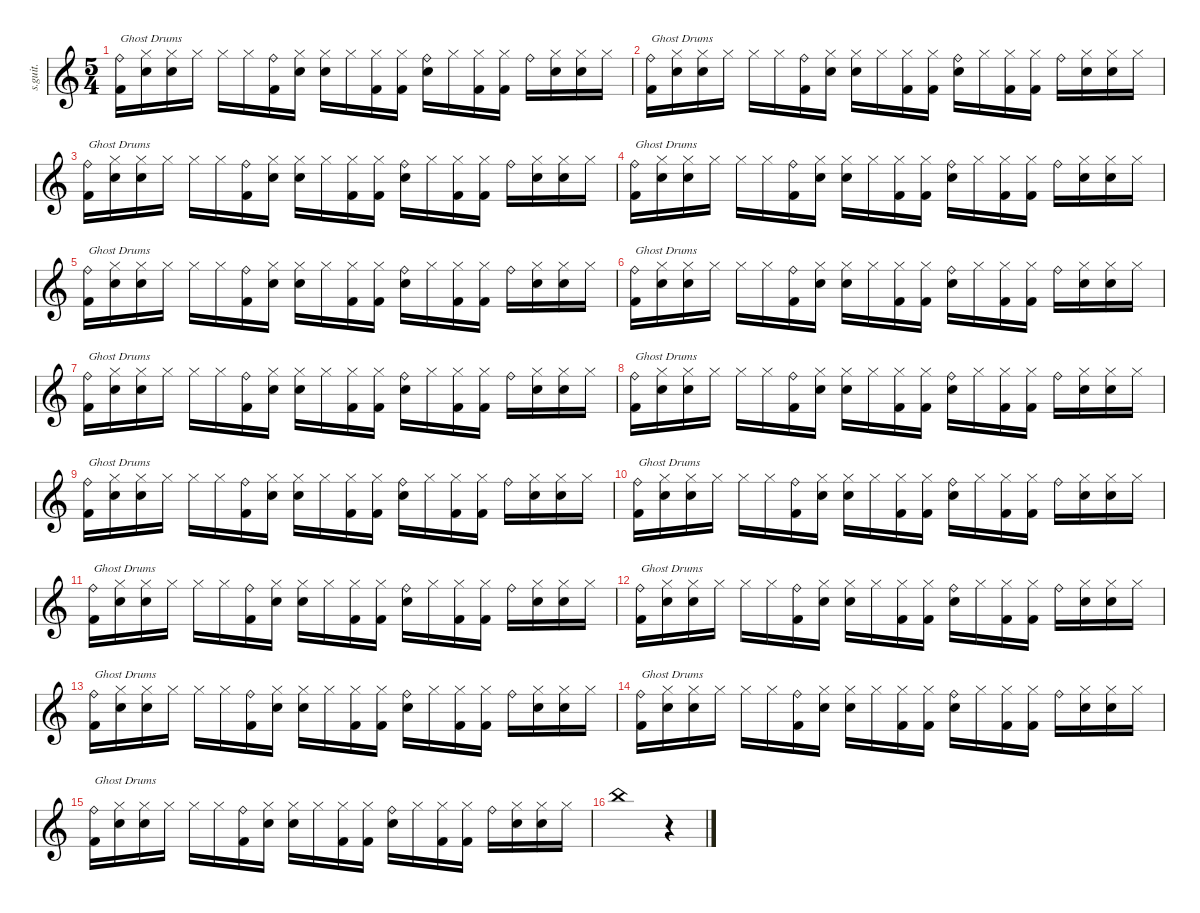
\defaultSystemsLayout 4
\hideDynamics
\bracketExtendMode nobrackets
\track ("Pete Riley" "s.guit.") {instrument percussion}
\staff {score}
\articulation defaults
\ts (5 4)
\tempo (152 hide)
\clef g2
\ks c
("Ride (bell)" "Kick (hit) 2").16{txt "Ghost Drums" dy ff} ("Hi-Hat (closed)" "Snare (hit) 2").16{dy p} ("Hi-Hat (closed)" "Snare (hit) 2").16 "Hi-Hat (closed)".16 "Hi-Hat (closed)".16 "Hi-Hat (closed)".16 ("Ride (bell)" "Kick (hit) 2").16{dy fff} ("Hi-Hat (closed)" "Snare (hit) 2").16{dy p} ("Hi-Hat (closed)" "Snare (hit) 2").16 "Hi-Hat (closed)".16 ("Hi-Hat (closed)" "Kick (hit) 2").16 ("Hi-Hat (closed)" "Kick (hit) 2").16 ("Ride (bell)" "Snare (hit) 2").16{dy ff} "Hi-Hat (closed)".16{dy p} ("Hi-Hat (closed)" "Kick (hit) 2").16 ("Hi-Hat (closed)" "Kick (hit) 2").16 "Ride (bell)".16{dy fff} ("Hi-Hat (closed)" "Snare (hit) 2").16{dy pp} ("Hi-Hat (closed)" "Snare (hit) 2").16 "Hi-Hat (closed)".16 |
("Ride (bell)" "Kick (hit) 2").16{txt "Ghost Drums" dy ff} ("Hi-Hat (closed)" "Snare (hit) 2").16{dy p} ("Hi-Hat (closed)" "Snare (hit) 2").16 "Hi-Hat (closed)".16 "Hi-Hat (closed)".16 "Hi-Hat (closed)".16 ("Ride (bell)" "Kick (hit) 2").16{dy fff} ("Hi-Hat (closed)" "Snare (hit) 2").16{dy p} ("Hi-Hat (closed)" "Snare (hit) 2").16 "Hi-Hat (closed)".16 ("Hi-Hat (closed)" "Kick (hit) 2").16 ("Hi-Hat (closed)" "Kick (hit) 2").16 ("Ride (bell)" "Snare (hit) 2").16{dy ff} "Hi-Hat (closed)".16{dy p} ("Hi-Hat (closed)" "Kick (hit) 2").16 ("Hi-Hat (closed)" "Kick (hit) 2").16 "Ride (bell)".16{dy f} ("Hi-Hat (closed)" "Snare (hit) 2").16{dy pp} ("Hi-Hat (closed)" "Snare (hit) 2").16 "Hi-Hat (closed)".16 |
("Ride (bell)" "Kick (hit) 2").16{txt "Ghost Drums" dy ff} ("Hi-Hat (closed)" "Snare (hit) 2").16{dy p} ("Hi-Hat (closed)" "Snare (hit) 2").16 "Hi-Hat (closed)".16 "Hi-Hat (closed)".16 "Hi-Hat (closed)".16 ("Ride (bell)" "Kick (hit) 2").16{dy fff} ("Hi-Hat (closed)" "Snare (hit) 2").16{dy p} ("Hi-Hat (closed)" "Snare (hit) 2").16 "Hi-Hat (closed)".16 ("Hi-Hat (closed)" "Kick (hit) 2").16 ("Hi-Hat (closed)" "Kick (hit) 2").16 ("Ride (bell)" "Snare (hit) 2").16{dy ff} "Hi-Hat (closed)".16{dy p} ("Hi-Hat (closed)" "Kick (hit) 2").16 ("Hi-Hat (closed)" "Kick (hit) 2").16 "Ride (bell)".16{dy fff} ("Hi-Hat (closed)" "Snare (hit) 2").16{dy pp} ("Hi-Hat (closed)" "Snare (hit) 2").16 "Hi-Hat (closed)".16 |
("Ride (bell)" "Kick (hit) 2").16{txt "Ghost Drums" dy ff} ("Hi-Hat (closed)" "Snare (hit) 2").16{dy p} ("Hi-Hat (closed)" "Snare (hit) 2").16 "Hi-Hat (closed)".16 "Hi-Hat (closed)".16 "Hi-Hat (closed)".16 ("Ride (bell)" "Kick (hit) 2").16{dy fff} ("Hi-Hat (closed)" "Snare (hit) 2").16{dy p} ("Hi-Hat (closed)" "Snare (hit) 2").16 "Hi-Hat (closed)".16 ("Hi-Hat (closed)" "Kick (hit) 2").16 ("Hi-Hat (closed)" "Kick (hit) 2").16 ("Ride (bell)" "Snare (hit) 2").16{dy ff} "Hi-Hat (closed)".16{dy p} ("Hi-Hat (closed)" "Kick (hit) 2").16 ("Hi-Hat (closed)" "Kick (hit) 2").16 "Ride (bell)".16{dy f} ("Hi-Hat (closed)" "Snare (hit) 2").16{dy pp} ("Hi-Hat (closed)" "Snare (hit) 2").16 "Hi-Hat (closed)".16 |
("Ride (bell)" "Kick (hit) 2").16{txt "Ghost Drums" dy ff} ("Hi-Hat (closed)" "Snare (hit) 2").16{dy p} ("Hi-Hat (closed)" "Snare (hit) 2").16 "Hi-Hat (closed)".16 "Hi-Hat (closed)".16 "Hi-Hat (closed)".16 ("Ride (bell)" "Kick (hit) 2").16{dy fff} ("Hi-Hat (closed)" "Snare (hit) 2").16{dy p} ("Hi-Hat (closed)" "Snare (hit) 2").16 "Hi-Hat (closed)".16 ("Hi-Hat (closed)" "Kick (hit) 2").16 ("Hi-Hat (closed)" "Kick (hit) 2").16 ("Ride (bell)" "Snare (hit) 2").16{dy ff} "Hi-Hat (closed)".16{dy p} ("Hi-Hat (closed)" "Kick (hit) 2").16 ("Hi-Hat (closed)" "Kick (hit) 2").16 "Ride (bell)".16{dy fff} ("Hi-Hat (closed)" "Snare (hit) 2").16{dy pp} ("Hi-Hat (closed)" "Snare (hit) 2").16 "Hi-Hat (closed)".16 |
("Ride (bell)" "Kick (hit) 2").16{txt "Ghost Drums" dy ff} ("Hi-Hat (closed)" "Snare (hit) 2").16{dy p} ("Hi-Hat (closed)" "Snare (hit) 2").16 "Hi-Hat (closed)".16 "Hi-Hat (closed)".16 "Hi-Hat (closed)".16 ("Ride (bell)" "Kick (hit) 2").16{dy fff} ("Hi-Hat (closed)" "Snare (hit) 2").16{dy p} ("Hi-Hat (closed)" "Snare (hit) 2").16 "Hi-Hat (closed)".16 ("Hi-Hat (closed)" "Kick (hit) 2").16 ("Hi-Hat (closed)" "Kick (hit) 2").16 ("Ride (bell)" "Snare (hit) 2").16{dy ff} "Hi-Hat (closed)".16{dy p} ("Hi-Hat (closed)" "Kick (hit) 2").16 ("Hi-Hat (closed)" "Kick (hit) 2").16 "Ride (bell)".16{dy f} ("Hi-Hat (closed)" "Snare (hit) 2").16{dy pp} ("Hi-Hat (closed)" "Snare (hit) 2").16 "Hi-Hat (closed)".16 |
("Ride (bell)" "Kick (hit) 2").16{txt "Ghost Drums" dy ff} ("Hi-Hat (closed)" "Snare (hit) 2").16{dy p} ("Hi-Hat (closed)" "Snare (hit) 2").16 "Hi-Hat (closed)".16 "Hi-Hat (closed)".16 "Hi-Hat (closed)".16 ("Ride (bell)" "Kick (hit) 2").16{dy fff} ("Hi-Hat (closed)" "Snare (hit) 2").16{dy p} ("Hi-Hat (closed)" "Snare (hit) 2").16 "Hi-Hat (closed)".16 ("Hi-Hat (closed)" "Kick (hit) 2").16 ("Hi-Hat (closed)" "Kick (hit) 2").16 ("Ride (bell)" "Snare (hit) 2").16{dy ff} "Hi-Hat (closed)".16{dy p} ("Hi-Hat (closed)" "Kick (hit) 2").16 ("Hi-Hat (closed)" "Kick (hit) 2").16 "Ride (bell)".16{dy fff} ("Hi-Hat (closed)" "Snare (hit) 2").16{dy pp} ("Hi-Hat (closed)" "Snare (hit) 2").16 "Hi-Hat (closed)".16 |
("Ride (bell)" "Kick (hit) 2").16{txt "Ghost Drums" dy ff} ("Hi-Hat (closed)" "Snare (hit) 2").16{dy p} ("Hi-Hat (closed)" "Snare (hit) 2").16 "Hi-Hat (closed)".16 "Hi-Hat (closed)".16 "Hi-Hat (closed)".16 ("Ride (bell)" "Kick (hit) 2").16{dy fff} ("Hi-Hat (closed)" "Snare (hit) 2").16{dy p} ("Hi-Hat (closed)" "Snare (hit) 2").16 "Hi-Hat (closed)".16 ("Hi-Hat (closed)" "Kick (hit) 2").16 ("Hi-Hat (closed)" "Kick (hit) 2").16 ("Ride (bell)" "Snare (hit) 2").16{dy ff} "Hi-Hat (closed)".16{dy p} ("Hi-Hat (closed)" "Kick (hit) 2").16 ("Hi-Hat (closed)" "Kick (hit) 2").16 "Ride (bell)".16{dy f} ("Hi-Hat (closed)" "Snare (hit) 2").16{dy pp} ("Hi-Hat (closed)" "Snare (hit) 2").16 "Hi-Hat (closed)".16 |
("Ride (bell)" "Kick (hit) 2").16{txt "Ghost Drums" dy ff} ("Hi-Hat (closed)" "Snare (hit) 2").16{dy p} ("Hi-Hat (closed)" "Snare (hit) 2").16 "Hi-Hat (closed)".16 "Hi-Hat (closed)".16 "Hi-Hat (closed)".16 ("Ride (bell)" "Kick (hit) 2").16{dy fff} ("Hi-Hat (closed)" "Snare (hit) 2").16{dy p} ("Hi-Hat (closed)" "Snare (hit) 2").16 "Hi-Hat (closed)".16 ("Hi-Hat (closed)" "Kick (hit) 2").16 ("Hi-Hat (closed)" "Kick (hit) 2").16 ("Ride (bell)" "Snare (hit) 2").16{dy ff} "Hi-Hat (closed)".16{dy p} ("Hi-Hat (closed)" "Kick (hit) 2").16 ("Hi-Hat (closed)" "Kick (hit) 2").16 "Ride (bell)".16{dy fff} ("Hi-Hat (closed)" "Snare (hit) 2").16{dy pp} ("Hi-Hat (closed)" "Snare (hit) 2").16 "Hi-Hat (closed)".16 |
("Ride (bell)" "Kick (hit) 2").16{txt "Ghost Drums" dy ff} ("Hi-Hat (closed)" "Snare (hit) 2").16{dy p} ("Hi-Hat (closed)" "Snare (hit) 2").16 "Hi-Hat (closed)".16 "Hi-Hat (closed)".16 "Hi-Hat (closed)".16 ("Ride (bell)" "Kick (hit) 2").16{dy fff} ("Hi-Hat (closed)" "Snare (hit) 2").16{dy p} ("Hi-Hat (closed)" "Snare (hit) 2").16 "Hi-Hat (closed)".16 ("Hi-Hat (closed)" "Kick (hit) 2").16 ("Hi-Hat (closed)" "Kick (hit) 2").16 ("Ride (bell)" "Snare (hit) 2").16{dy ff} "Hi-Hat (closed)".16{dy p} ("Hi-Hat (closed)" "Kick (hit) 2").16 ("Hi-Hat (closed)" "Kick (hit) 2").16 "Ride (bell)".16{dy f} ("Hi-Hat (closed)" "Snare (hit) 2").16{dy pp} ("Hi-Hat (closed)" "Snare (hit) 2").16 "Hi-Hat (closed)".16 |
("Ride (bell)" "Kick (hit) 2").16{txt "Ghost Drums" dy ff} ("Hi-Hat (closed)" "Snare (hit) 2").16{dy p} ("Hi-Hat (closed)" "Snare (hit) 2").16 "Hi-Hat (closed)".16 "Hi-Hat (closed)".16 "Hi-Hat (closed)".16 ("Ride (bell)" "Kick (hit) 2").16{dy fff} ("Hi-Hat (closed)" "Snare (hit) 2").16{dy p} ("Hi-Hat (closed)" "Snare (hit) 2").16 "Hi-Hat (closed)".16 ("Hi-Hat (closed)" "Kick (hit) 2").16 ("Hi-Hat (closed)" "Kick (hit) 2").16 ("Ride (bell)" "Snare (hit) 2").16{dy ff} "Hi-Hat (closed)".16{dy p} ("Hi-Hat (closed)" "Kick (hit) 2").16 ("Hi-Hat (closed)" "Kick (hit) 2").16 "Ride (bell)".16{dy fff} ("Hi-Hat (closed)" "Snare (hit) 2").16{dy pp} ("Hi-Hat (closed)" "Snare (hit) 2").16 "Hi-Hat (closed)".16 |
("Ride (bell)" "Kick (hit) 2").16{txt "Ghost Drums" dy ff} ("Hi-Hat (closed)" "Snare (hit) 2").16{dy p} ("Hi-Hat (closed)" "Snare (hit) 2").16 "Hi-Hat (closed)".16 "Hi-Hat (closed)".16 "Hi-Hat (closed)".16 ("Ride (bell)" "Kick (hit) 2").16{dy fff} ("Hi-Hat (closed)" "Snare (hit) 2").16{dy p} ("Hi-Hat (closed)" "Snare (hit) 2").16 "Hi-Hat (closed)".16 ("Hi-Hat (closed)" "Kick (hit) 2").16 ("Hi-Hat (closed)" "Kick (hit) 2").16 ("Ride (bell)" "Snare (hit) 2").16{dy ff} "Hi-Hat (closed)".16{dy p} ("Hi-Hat (closed)" "Kick (hit) 2").16 ("Hi-Hat (closed)" "Kick (hit) 2").16 "Ride (bell)".16{dy f} ("Hi-Hat (closed)" "Snare (hit) 2").16{dy pp} ("Hi-Hat (closed)" "Snare (hit) 2").16 "Hi-Hat (closed)".16 |
("Ride (bell)" "Kick (hit) 2").16{txt "Ghost Drums" dy ff} ("Hi-Hat (closed)" "Snare (hit) 2").16{dy p} ("Hi-Hat (closed)" "Snare (hit) 2").16 "Hi-Hat (closed)".16 "Hi-Hat (closed)".16 "Hi-Hat (closed)".16 ("Ride (bell)" "Kick (hit) 2").16{dy fff} ("Hi-Hat (closed)" "Snare (hit) 2").16{dy p} ("Hi-Hat (closed)" "Snare (hit) 2").16 "Hi-Hat (closed)".16 ("Hi-Hat (closed)" "Kick (hit) 2").16 ("Hi-Hat (closed)" "Kick (hit) 2").16 ("Ride (bell)" "Snare (hit) 2").16{dy ff} "Hi-Hat (closed)".16{dy p} ("Hi-Hat (closed)" "Kick (hit) 2").16 ("Hi-Hat (closed)" "Kick (hit) 2").16 "Ride (bell)".16{dy fff} ("Hi-Hat (closed)" "Snare (hit) 2").16{dy pp} ("Hi-Hat (closed)" "Snare (hit) 2").16 "Hi-Hat (closed)".16 |
("Ride (bell)" "Kick (hit) 2").16{txt "Ghost Drums" dy ff} ("Hi-Hat (closed)" "Snare (hit) 2").16{dy p} ("Hi-Hat (closed)" "Snare (hit) 2").16 "Hi-Hat (closed)".16 "Hi-Hat (closed)".16 "Hi-Hat (closed)".16 ("Ride (bell)" "Kick (hit) 2").16{dy fff} ("Hi-Hat (closed)" "Snare (hit) 2").16{dy p} ("Hi-Hat (closed)" "Snare (hit) 2").16 "Hi-Hat (closed)".16 ("Hi-Hat (closed)" "Kick (hit) 2").16 ("Hi-Hat (closed)" "Kick (hit) 2").16 ("Ride (bell)" "Snare (hit) 2").16{dy ff} "Hi-Hat (closed)".16{dy p} ("Hi-Hat (closed)" "Kick (hit) 2").16 ("Hi-Hat (closed)" "Kick (hit) 2").16 "Ride (bell)".16{dy f} ("Hi-Hat (closed)" "Snare (hit) 2").16{dy pp} ("Hi-Hat (closed)" "Snare (hit) 2").16 "Hi-Hat (closed)".16 |
("Ride (bell)" "Kick (hit) 2").16{txt "Ghost Drums" dy ff} ("Hi-Hat (closed)" "Snare (hit) 2").16{dy p} ("Hi-Hat (closed)" "Snare (hit) 2").16 "Hi-Hat (closed)".16 "Hi-Hat (closed)".16 "Hi-Hat (closed)".16 ("Ride (bell)" "Kick (hit) 2").16{dy fff} ("Hi-Hat (closed)" "Snare (hit) 2").16{dy p} ("Hi-Hat (closed)" "Snare (hit) 2").16 "Hi-Hat (closed)".16 ("Hi-Hat (closed)" "Kick (hit) 2").16 ("Hi-Hat (closed)" "Kick (hit) 2").16 ("Ride (bell)" "Snare (hit) 2").16{dy ff} "Hi-Hat (closed)".16{dy p} ("Hi-Hat (closed)" "Kick (hit) 2").16 ("Hi-Hat (closed)" "Kick (hit) 2").16 "Ride (bell)".16{dy fff} ("Hi-Hat (closed)" "Snare (hit) 2").16{dy pp} ("Hi-Hat (closed)" "Snare (hit) 2").16 "Hi-Hat (closed)".16 |
"China (hit)".1{dy f} r.4
